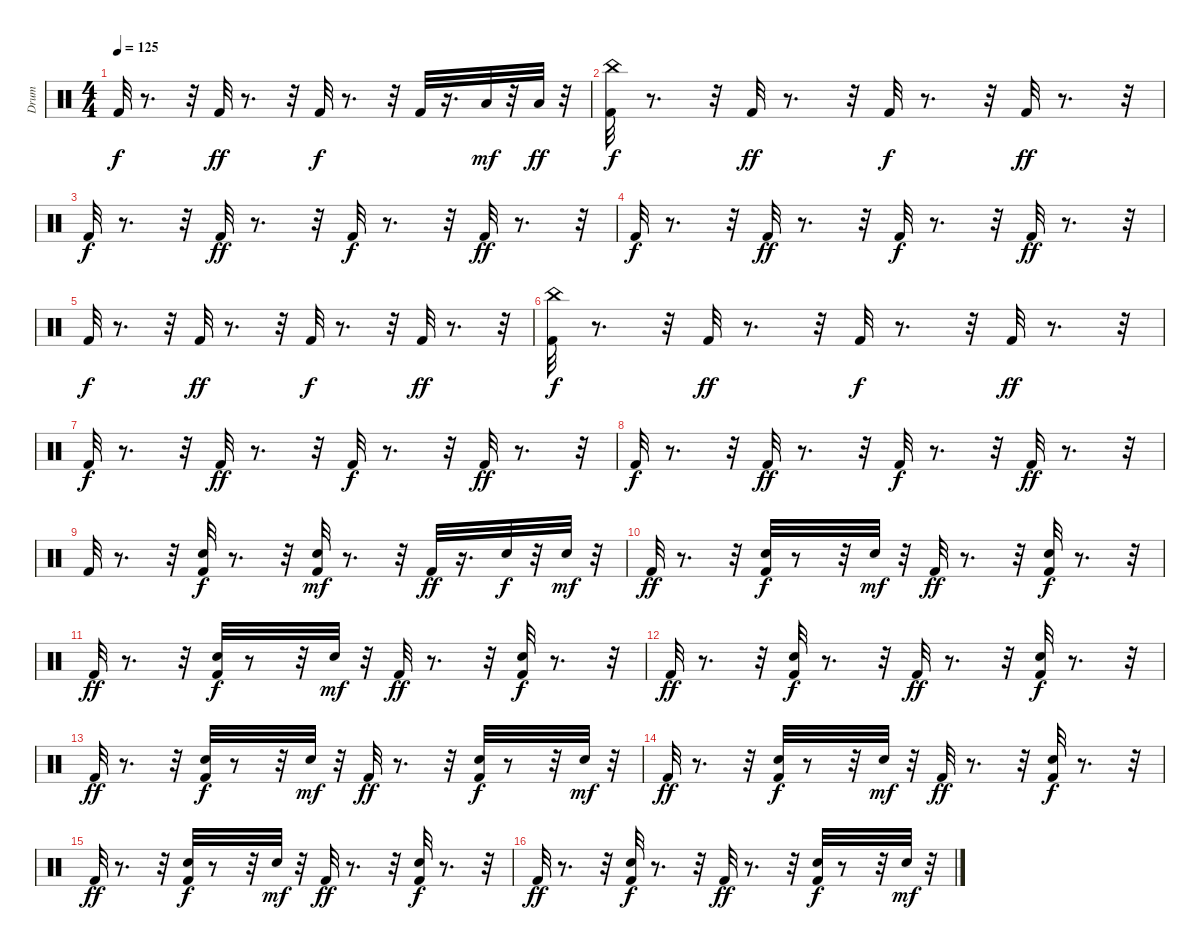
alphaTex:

\track ("Drum" "Drum") {instrument percussion}
\staff {score}
\articulation defaults
\ts (4 4)
\tempo 125
\clef neutral
\ks c "Kick (hit) 2".32{dy f}
r.8{d} r.32 "Kick (hit) 2".32{dy ff} r.8{d} r.32 "Kick (hit) 2".32{dy f} r.8{d} r.32 "Kick (hit) 2".32 r.16{d} "Low Tom (hit)".32{dy mf} r.32 "Low Tom (hit)".32{dy ff} r.32 |
("China (hit)" "Kick (hit) 2").32{dy f} r.8{d} r.32 "Kick (hit) 2".32{dy ff} r.8{d} r.32 "Kick (hit) 2".32{dy f} r.8{d} r.32 "Kick (hit) 2".32{dy ff} r.8{d} r.32 |
"Kick (hit) 2".32{dy f} r.8{d} r.32 "Kick (hit) 2".32{dy ff} r.8{d} r.32 "Kick (hit) 2".32{dy f} r.8{d} r.32 "Kick (hit) 2".32{dy ff} r.8{d} r.32 |
"Kick (hit) 2".32{dy f} r.8{d} r.32 "Kick (hit) 2".32{dy ff} r.8{d} r.32 "Kick (hit) 2".32{dy f} r.8{d} r.32 "Kick (hit) 2".32{dy ff} r.8{d} r.32 |
"Kick (hit) 2".32{dy f} r.8{d} r.32 "Kick (hit) 2".32{dy ff} r.8{d} r.32 "Kick (hit) 2".32{dy f} r.8{d} r.32 "Kick (hit) 2".32{dy ff} r.8{d} r.32 |
("China (hit)" "Kick (hit) 2").32{dy f} r.8{d} r.32 "Kick (hit) 2".32{dy ff} r.8{d} r.32 "Kick (hit) 2".32{dy f} r.8{d} r.32 "Kick (hit) 2".32{dy ff} r.8{d} r.32 |
"Kick (hit) 2".32{dy f} r.8{d} r.32 "Kick (hit) 2".32{dy ff} r.8{d} r.32 "Kick (hit) 2".32{dy f} r.8{d} r.32 "Kick (hit) 2".32{dy ff} r.8{d} r.32 |
"Kick (hit) 2".32{dy f} r.8{d} r.32 "Kick (hit) 2".32{dy ff} r.8{d} r.32 "Kick (hit) 2".32{dy f} r.8{d} r.32 "Kick (hit) 2".32{dy ff} r.8{d} r.32 |
"Kick (hit) 2".32 r.8{d} r.32 ("Snare (hit) 2" "Kick (hit) 2").32{dy f} r.8{d} r.32 ("Snare (hit) 2" "Kick (hit) 2").32{dy mf} r.8{d} r.32 "Kick (hit) 2".32{dy ff} r.16{d} "Snare (hit) 2".32{dy f} r.32 "Snare (hit) 2".32{dy mf} r.32 |
"Kick (hit) 2".32{dy ff} r.8{d} r.32 ("Snare (hit) 2" "Kick (hit) 2").32{dy f} r.8 r.32 "Snare (hit) 2".32{dy mf} r.32 "Kick (hit) 2".32{dy ff} r.8{d} r.32 ("Snare (hit) 2" "Kick (hit) 2").32{dy f} r.8{d} r.32 |
"Kick (hit) 2".32{dy ff} r.8{d} r.32 ("Snare (hit) 2" "Kick (hit) 2").32{dy f} r.8 r.32 "Snare (hit) 2".32{dy mf} r.32 "Kick (hit) 2".32{dy ff} r.8{d} r.32 ("Snare (hit) 2" "Kick (hit) 2").32{dy f} r.8{d} r.32 |
"Kick (hit) 2".32{dy ff} r.8{d} r.32 ("Snare (hit) 2" "Kick (hit) 2").32{dy f} r.8{d} r.32 "Kick (hit) 2".32{dy ff} r.8{d} r.32 ("Snare (hit) 2" "Kick (hit) 2").32{dy f} r.8{d} r.32 |
"Kick (hit) 2".32{dy ff} r.8{d} r.32 ("Snare (hit) 2" "Kick (hit) 2").32{dy f} r.8 r.32 "Snare (hit) 2".32{dy mf} r.32 "Kick (hit) 2".32{dy ff} r.8{d} r.32 ("Snare (hit) 2" "Kick (hit) 2").32{dy f} r.8 r.32 "Snare (hit) 2".32{dy mf} r.32 |
"Kick (hit) 2".32{dy ff} r.8{d} r.32 ("Snare (hit) 2" "Kick (hit) 2").32{dy f} r.8 r.32 "Snare (hit) 2".32{dy mf} r.32 "Kick (hit) 2".32{dy ff} r.8{d} r.32 ("Snare (hit) 2" "Kick (hit) 2").32{dy f} r.8{d} r.32 |
"Kick (hit) 2".32{dy ff} r.8{d} r.32 ("Snare (hit) 2" "Kick (hit) 2").32{dy f} r.8 r.32 "Snare (hit) 2".32{dy mf} r.32 "Kick (hit) 2".32{dy ff} r.8{d} r.32 ("Snare (hit) 2" "Kick (hit) 2").32{dy f} r.8{d} r.32 |
"Kick (hit) 2".32{dy ff} r.8{d} r.32 ("Snare (hit) 2" "Kick (hit) 2").32{dy f} r.8{d} r.32 "Kick (hit) 2".32{dy ff} r.8{d} r.32 ("Snare (hit) 2" "Kick (hit) 2").32{dy f} r.8 r.32 "Snare (hit) 2".32{dy mf} r.32
